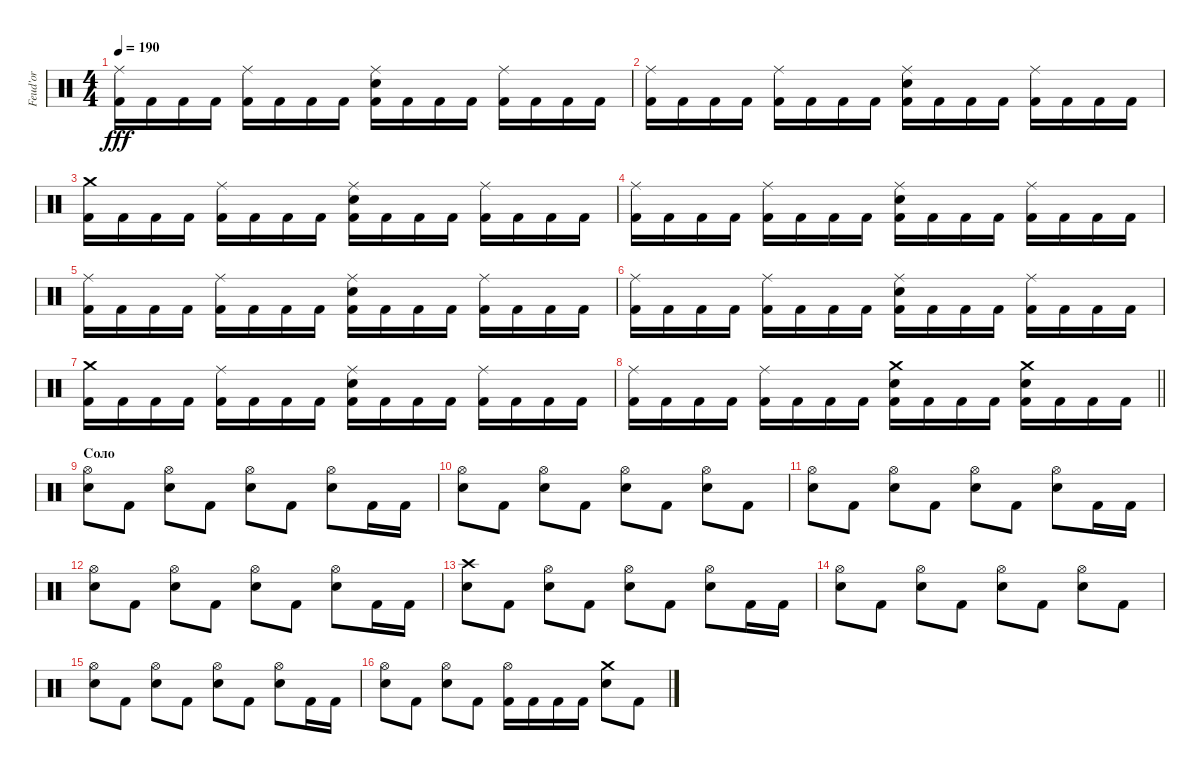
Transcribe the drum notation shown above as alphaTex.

\track ("Feud'or" "Feud'or") {instrument percussion}
\staff {score}
\articulation defaults
\ts (4 4)
\tempo 190
\clef neutral
\ks c
("Ride (middle)" "Kick (hit) 2").16{dy fff} "Kick (hit) 2".16 "Kick (hit) 2".16 "Kick (hit) 2".16 ("Ride (middle)" "Kick (hit) 2").16 "Kick (hit) 2".16 "Kick (hit) 2".16 "Kick (hit) 2".16 ("Ride (middle)" "Snare (hit) 2" "Kick (hit) 2").16 "Kick (hit) 2".16 "Kick (hit) 2".16 "Kick (hit) 2".16 ("Ride (middle)" "Kick (hit) 2").16 "Kick (hit) 2".16 "Kick (hit) 2".16 "Kick (hit) 2".16 |
("Ride (middle)" "Kick (hit) 2").16 "Kick (hit) 2".16 "Kick (hit) 2".16 "Kick (hit) 2".16 ("Ride (middle)" "Kick (hit) 2").16 "Kick (hit) 2".16 "Kick (hit) 2".16 "Kick (hit) 2".16 ("Ride (middle)" "Snare (hit) 2" "Kick (hit) 2").16 "Kick (hit) 2".16 "Kick (hit) 2".16 "Kick (hit) 2".16 ("Ride (middle)" "Kick (hit) 2").16 "Kick (hit) 2".16 "Kick (hit) 2".16 "Kick (hit) 2".16 |
("Crash medium (hit)" "Kick (hit) 2").16 "Kick (hit) 2".16 "Kick (hit) 2".16 "Kick (hit) 2".16 ("Ride (middle)" "Kick (hit) 2").16 "Kick (hit) 2".16 "Kick (hit) 2".16 "Kick (hit) 2".16 ("Ride (middle)" "Snare (hit) 2" "Kick (hit) 2").16 "Kick (hit) 2".16 "Kick (hit) 2".16 "Kick (hit) 2".16 ("Ride (middle)" "Kick (hit) 2").16 "Kick (hit) 2".16 "Kick (hit) 2".16 "Kick (hit) 2".16 |
("Ride (middle)" "Kick (hit) 2").16 "Kick (hit) 2".16 "Kick (hit) 2".16 "Kick (hit) 2".16 ("Ride (middle)" "Kick (hit) 2").16 "Kick (hit) 2".16 "Kick (hit) 2".16 "Kick (hit) 2".16 ("Ride (middle)" "Snare (hit) 2" "Kick (hit) 2").16 "Kick (hit) 2".16 "Kick (hit) 2".16 "Kick (hit) 2".16 ("Ride (middle)" "Kick (hit) 2").16 "Kick (hit) 2".16 "Kick (hit) 2".16 "Kick (hit) 2".16 |
("Ride (middle)" "Kick (hit) 2").16 "Kick (hit) 2".16 "Kick (hit) 2".16 "Kick (hit) 2".16 ("Ride (middle)" "Kick (hit) 2").16 "Kick (hit) 2".16 "Kick (hit) 2".16 "Kick (hit) 2".16 ("Ride (middle)" "Snare (hit) 2" "Kick (hit) 2").16 "Kick (hit) 2".16 "Kick (hit) 2".16 "Kick (hit) 2".16 ("Ride (middle)" "Kick (hit) 2").16 "Kick (hit) 2".16 "Kick (hit) 2".16 "Kick (hit) 2".16 |
("Ride (middle)" "Kick (hit) 2").16 "Kick (hit) 2".16 "Kick (hit) 2".16 "Kick (hit) 2".16 ("Ride (middle)" "Kick (hit) 2").16 "Kick (hit) 2".16 "Kick (hit) 2".16 "Kick (hit) 2".16 ("Ride (middle)" "Snare (hit) 2" "Kick (hit) 2").16 "Kick (hit) 2".16 "Kick (hit) 2".16 "Kick (hit) 2".16 ("Ride (middle)" "Kick (hit) 2").16 "Kick (hit) 2".16 "Kick (hit) 2".16 "Kick (hit) 2".16 |
("Crash medium (hit)" "Kick (hit) 2").16 "Kick (hit) 2".16 "Kick (hit) 2".16 "Kick (hit) 2".16 ("Ride (middle)" "Kick (hit) 2").16 "Kick (hit) 2".16 "Kick (hit) 2".16 "Kick (hit) 2".16 ("Ride (middle)" "Snare (hit) 2" "Kick (hit) 2").16 "Kick (hit) 2".16 "Kick (hit) 2".16 "Kick (hit) 2".16 ("Ride (middle)" "Kick (hit) 2").16 "Kick (hit) 2".16 "Kick (hit) 2".16 "Kick (hit) 2".16 |
\barLineRight lightlight
("Ride (middle)" "Kick (hit) 2").16 "Kick (hit) 2".16 "Kick (hit) 2".16 "Kick (hit) 2".16 ("Ride (middle)" "Kick (hit) 2").16 "Kick (hit) 2".16 "Kick (hit) 2".16 "Kick (hit) 2".16 ("Crash medium (hit)" "Snare (hit) 2" "Kick (hit) 2").16 "Kick (hit) 2".16 "Kick (hit) 2".16 "Kick (hit) 2".16 ("Crash medium (hit)" "Snare (hit) 2" "Kick (hit) 2").16 "Kick (hit) 2".16 "Kick (hit) 2".16 "Kick (hit) 2".16 |
\section ("" "Соло")
("Hi-Hat (open)" "Snare (hit) 2").8 "Kick (hit) 2".8 ("Hi-Hat (open)" "Snare (hit) 2").8 "Kick (hit) 2".8 ("Hi-Hat (open)" "Snare (hit) 2").8 "Kick (hit) 2".8 ("Hi-Hat (open)" "Snare (hit) 2").8 "Kick (hit) 2".16 "Kick (hit) 2".16 |
("Hi-Hat (open)" "Snare (hit) 2").8 "Kick (hit) 2".8 ("Hi-Hat (open)" "Snare (hit) 2").8 "Kick (hit) 2".8 ("Hi-Hat (open)" "Snare (hit) 2").8 "Kick (hit) 2".8 ("Hi-Hat (open)" "Snare (hit) 2").8 "Kick (hit) 2".8 |
("Hi-Hat (open)" "Snare (hit) 2").8 "Kick (hit) 2".8 ("Hi-Hat (open)" "Snare (hit) 2").8 "Kick (hit) 2".8 ("Hi-Hat (open)" "Snare (hit) 2").8 "Kick (hit) 2".8 ("Hi-Hat (open)" "Snare (hit) 2").8 "Kick (hit) 2".16 "Kick (hit) 2".16 |
("Hi-Hat (open)" "Snare (hit) 2").8 "Kick (hit) 2".8 ("Hi-Hat (open)" "Snare (hit) 2").8 "Kick (hit) 2".8 ("Hi-Hat (open)" "Snare (hit) 2").8 "Kick (hit) 2".8 ("Hi-Hat (open)" "Snare (hit) 2").8 "Kick (hit) 2".16 "Kick (hit) 2".16 |
("Crash high (hit)" "Snare (hit) 2").8 "Kick (hit) 2".8 ("Hi-Hat (open)" "Snare (hit) 2").8 "Kick (hit) 2".8 ("Hi-Hat (open)" "Snare (hit) 2").8 "Kick (hit) 2".8 ("Hi-Hat (open)" "Snare (hit) 2").8 "Kick (hit) 2".16 "Kick (hit) 2".16 |
("Hi-Hat (open)" "Snare (hit) 2").8 "Kick (hit) 2".8 ("Hi-Hat (open)" "Snare (hit) 2").8 "Kick (hit) 2".8 ("Hi-Hat (open)" "Snare (hit) 2").8 "Kick (hit) 2".8 ("Hi-Hat (open)" "Snare (hit) 2").8 "Kick (hit) 2".8 |
("Hi-Hat (open)" "Snare (hit) 2").8 "Kick (hit) 2".8 ("Hi-Hat (open)" "Snare (hit) 2").8 "Kick (hit) 2".8 ("Hi-Hat (open)" "Snare (hit) 2").8 "Kick (hit) 2".8 ("Hi-Hat (open)" "Snare (hit) 2").8 "Kick (hit) 2".16 "Kick (hit) 2".16 |
("Hi-Hat (open)" "Snare (hit) 2").8 "Kick (hit) 2".8 ("Hi-Hat (open)" "Snare (hit) 2").8 "Kick (hit) 2".8 ("Hi-Hat (open)" "Kick (hit) 2").16 "Kick (hit) 2".16 "Kick (hit) 2".16 "Kick (hit) 2".16 ("Crash medium (hit)" "Snare (hit) 2").8 "Kick (hit) 2".8
